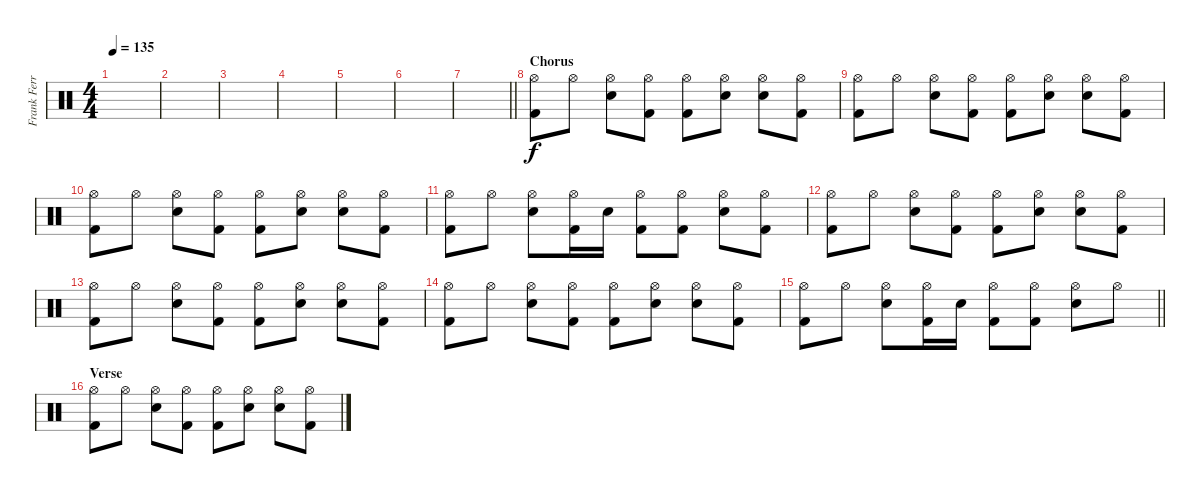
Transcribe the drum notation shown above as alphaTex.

\track ("Frank Ferrer" "Frank Ferr") {instrument percussion}
\staff {score}
\articulation defaults
\ts (4 4)
\tempo 135
\clef neutral
\ks c
|
|
|
|
|
|
\barLineRight lightlight
|
\section ("" "Chorus")
("Hi-Hat (open)" "Kick (hit) 2").8 "Hi-Hat (open)".8 ("Hi-Hat (open)" "Electric Snare (hit)").8 ("Hi-Hat (open)" "Kick (hit) 2").8 ("Hi-Hat (open)" "Kick (hit) 2").8 ("Hi-Hat (open)" "Electric Snare (hit)").8 ("Hi-Hat (open)" "Electric Snare (hit)").8 ("Hi-Hat (open)" "Kick (hit) 2").8 |
("Hi-Hat (open)" "Kick (hit) 2").8 "Hi-Hat (open)".8 ("Hi-Hat (open)" "Electric Snare (hit)").8 ("Hi-Hat (open)" "Kick (hit) 2").8 ("Hi-Hat (open)" "Kick (hit) 2").8 ("Hi-Hat (open)" "Electric Snare (hit)").8 ("Hi-Hat (open)" "Electric Snare (hit)").8 ("Hi-Hat (open)" "Kick (hit) 2").8 |
("Hi-Hat (open)" "Kick (hit) 2").8 "Hi-Hat (open)".8 ("Hi-Hat (open)" "Electric Snare (hit)").8 ("Hi-Hat (open)" "Kick (hit) 2").8 ("Hi-Hat (open)" "Kick (hit) 2").8 ("Hi-Hat (open)" "Electric Snare (hit)").8 ("Hi-Hat (open)" "Electric Snare (hit)").8 ("Hi-Hat (open)" "Kick (hit) 2").8 |
("Hi-Hat (open)" "Kick (hit) 2").8 "Hi-Hat (open)".8 ("Hi-Hat (open)" "Electric Snare (hit)").8 ("Hi-Hat (open)" "Kick (hit) 2").16 "Electric Snare (hit)".16 ("Hi-Hat (open)" "Kick (hit) 2").8 ("Hi-Hat (open)" "Kick (hit) 2").8 ("Hi-Hat (open)" "Electric Snare (hit)").8 ("Hi-Hat (open)" "Kick (hit) 2").8 |
("Hi-Hat (open)" "Kick (hit) 2").8 "Hi-Hat (open)".8 ("Hi-Hat (open)" "Electric Snare (hit)").8 ("Hi-Hat (open)" "Kick (hit) 2").8 ("Hi-Hat (open)" "Kick (hit) 2").8 ("Hi-Hat (open)" "Electric Snare (hit)").8 ("Hi-Hat (open)" "Electric Snare (hit)").8 ("Hi-Hat (open)" "Kick (hit) 2").8 |
("Hi-Hat (open)" "Kick (hit) 2").8 "Hi-Hat (open)".8 ("Hi-Hat (open)" "Electric Snare (hit)").8 ("Hi-Hat (open)" "Kick (hit) 2").8 ("Hi-Hat (open)" "Kick (hit) 2").8 ("Hi-Hat (open)" "Electric Snare (hit)").8 ("Hi-Hat (open)" "Electric Snare (hit)").8 ("Hi-Hat (open)" "Kick (hit) 2").8 |
("Hi-Hat (open)" "Kick (hit) 2").8 "Hi-Hat (open)".8 ("Hi-Hat (open)" "Electric Snare (hit)").8 ("Hi-Hat (open)" "Kick (hit) 2").8 ("Hi-Hat (open)" "Kick (hit) 2").8 ("Hi-Hat (open)" "Electric Snare (hit)").8 ("Hi-Hat (open)" "Electric Snare (hit)").8 ("Hi-Hat (open)" "Kick (hit) 2").8 |
\barLineRight lightlight
("Hi-Hat (open)" "Kick (hit) 2").8 "Hi-Hat (open)".8 ("Hi-Hat (open)" "Electric Snare (hit)").8 ("Hi-Hat (open)" "Kick (hit) 2").16 "Electric Snare (hit)".16 ("Hi-Hat (open)" "Kick (hit) 2").8 ("Hi-Hat (open)" "Kick (hit) 2").8 ("Hi-Hat (open)" "Electric Snare (hit)").8 "Hi-Hat (open)".8 |
\section ("" "Verse")
("Hi-Hat (open)" "Kick (hit) 2").8 "Hi-Hat (open)".8 ("Hi-Hat (open)" "Electric Snare (hit)").8 ("Hi-Hat (open)" "Kick (hit) 2").8 ("Hi-Hat (open)" "Kick (hit) 2").8 ("Hi-Hat (open)" "Electric Snare (hit)").8 ("Hi-Hat (open)" "Electric Snare (hit)").8 ("Hi-Hat (open)" "Kick (hit) 2").8
